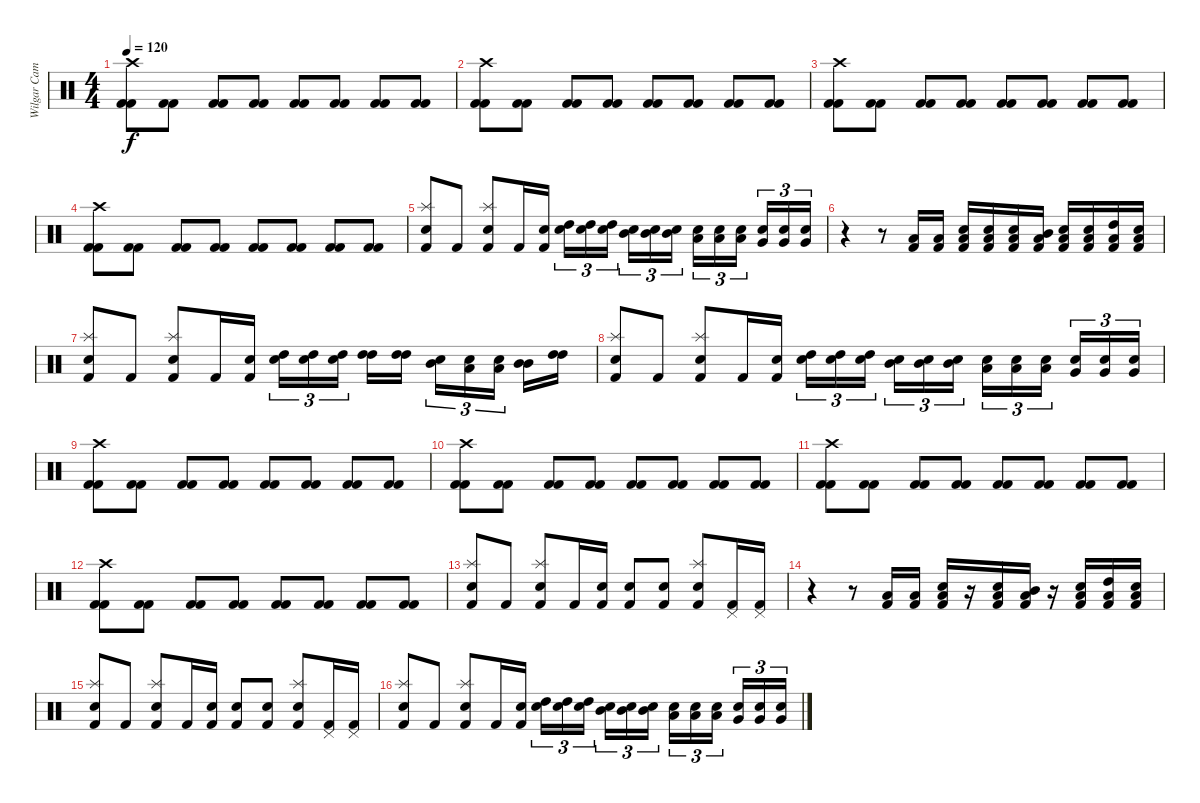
\track ("Wilgar Campbell" "Wilgar Cam") {instrument percussion}
\staff {score}
\articulation defaults
\ts (4 4)
\tempo 120
\clef neutral
\ks c
("Crash high (hit)" "Kick (hit) 2" "Kick (hit) 2").8{dy f} ("Kick (hit) 2" "Kick (hit) 2").8 ("Kick (hit) 2" "Kick (hit) 2").8 ("Kick (hit) 2" "Kick (hit) 2").8 ("Kick (hit) 2" "Kick (hit) 2").8 ("Kick (hit) 2" "Kick (hit) 2").8 ("Kick (hit) 2" "Kick (hit) 2").8 ("Kick (hit) 2" "Kick (hit) 2").8 |
("Crash high (hit)" "Kick (hit) 2" "Kick (hit) 2").8 ("Kick (hit) 2" "Kick (hit) 2").8 ("Kick (hit) 2" "Kick (hit) 2").8 ("Kick (hit) 2" "Kick (hit) 2").8 ("Kick (hit) 2" "Kick (hit) 2").8 ("Kick (hit) 2" "Kick (hit) 2").8 ("Kick (hit) 2" "Kick (hit) 2").8 ("Kick (hit) 2" "Kick (hit) 2").8 |
("Crash high (hit)" "Kick (hit) 2" "Kick (hit) 2").8 ("Kick (hit) 2" "Kick (hit) 2").8 ("Kick (hit) 2" "Kick (hit) 2").8 ("Kick (hit) 2" "Kick (hit) 2").8 ("Kick (hit) 2" "Kick (hit) 2").8 ("Kick (hit) 2" "Kick (hit) 2").8 ("Kick (hit) 2" "Kick (hit) 2").8 ("Kick (hit) 2" "Kick (hit) 2").8 |
("Crash high (hit)" "Kick (hit) 2" "Kick (hit) 2").8 ("Kick (hit) 2" "Kick (hit) 2").8 ("Kick (hit) 2" "Kick (hit) 2").8 ("Kick (hit) 2" "Kick (hit) 2").8 ("Kick (hit) 2" "Kick (hit) 2").8 ("Kick (hit) 2" "Kick (hit) 2").8 ("Kick (hit) 2" "Kick (hit) 2").8 ("Kick (hit) 2" "Kick (hit) 2").8 |
("Splash (hit)" "Snare (hit) 2" "Kick (hit) 2").8 "Kick (hit) 2".8 ("Splash (hit)" "Electric Snare (hit)" "Kick (hit) 2").8 "Kick (hit) 2".16 ("Snare (hit) 2" "Kick (hit) 2").16 ("High Tom (hit)" "Electric Snare (hit)").16{tu (3 2)} ("High Tom (hit)" "Electric Snare (hit)").16{tu (3 2)} ("High Tom (hit)" "Electric Snare (hit)").16{tu (3 2)} ("Mid Tom (hit)" "Electric Snare (hit)").16{tu (3 2)} ("Mid Tom (hit)" "Electric Snare (hit)").16{tu (3 2)} ("Mid Tom (hit)" "Electric Snare (hit)").16{tu (3 2)} ("Low Tom (hit)" "Snare (hit) 2").16{tu (3 2)} ("Low Tom (hit)" "Snare (hit) 2").16{tu (3 2)} ("Low Tom (hit)" "Snare (hit) 2").16{tu (3 2)} ("Very Low Tom (hit)" "Snare (hit) 2").16{tu (3 2)} ("Very Low Tom (hit)" "Snare (hit) 2").16{tu (3 2)} ("Very Low Tom (hit)" "Snare (hit) 2").16{tu (3 2)} |
r.4 r.8 ("Low Tom (hit)" "Kick (hit) 2").16 ("Low Tom (hit)" "Kick (hit) 2").16 ("Snare (hit) 2" "Low Tom (hit)" "Kick (hit) 2").16 ("Electric Snare (hit)" "Low Tom (hit)" "Kick (hit) 2").16 ("Snare (hit) 2" "Low Tom (hit)" "Kick (hit) 2").16 ("Mid Tom (hit)" "Low Tom (hit)" "Kick (hit) 2").16 ("Electric Snare (hit)" "Low Tom (hit)" "Kick (hit) 2").16 ("Snare (hit) 2" "Low Tom (hit)" "Kick (hit) 2").16 ("High Tom (hit)" "Low Tom (hit)" "Kick (hit) 2").16 ("Electric Snare (hit)" "Low Tom (hit)" "Kick (hit) 2").16 |
("Splash (hit)" "Snare (hit) 2" "Kick (hit) 2").8 "Kick (hit) 2".8 ("Splash (hit)" "Electric Snare (hit)" "Kick (hit) 2").8 "Kick (hit) 2".16 ("Snare (hit) 2" "Kick (hit) 2").16 ("High Tom (hit)" "Electric Snare (hit)").16{tu (3 2)} ("High Tom (hit)" "Electric Snare (hit)").16{tu (3 2)} ("High Tom (hit)" "Electric Snare (hit)").16{tu (3 2)} ("High Tom (hit)" "High Tom (hit)").16 ("High Tom (hit)" "High Tom (hit)").16 ("Mid Tom (hit)" "Electric Snare (hit)").16{tu (3 2)} ("Low Tom (hit)" "Snare (hit) 2").16{tu (3 2)} ("Low Tom (hit)" "Snare (hit) 2").16{tu (3 2)} ("Mid Tom (hit)" "Mid Tom (hit)").16 ("High Tom (hit)" "High Tom (hit)").16 |
("Splash (hit)" "Snare (hit) 2" "Kick (hit) 2").8 "Kick (hit) 2".8 ("Splash (hit)" "Electric Snare (hit)" "Kick (hit) 2").8 "Kick (hit) 2".16 ("Snare (hit) 2" "Kick (hit) 2").16 ("High Tom (hit)" "Electric Snare (hit)").16{tu (3 2)} ("High Tom (hit)" "Electric Snare (hit)").16{tu (3 2)} ("High Tom (hit)" "Electric Snare (hit)").16{tu (3 2)} ("Mid Tom (hit)" "Electric Snare (hit)").16{tu (3 2)} ("Mid Tom (hit)" "Electric Snare (hit)").16{tu (3 2)} ("Mid Tom (hit)" "Electric Snare (hit)").16{tu (3 2)} ("Low Tom (hit)" "Snare (hit) 2").16{tu (3 2)} ("Low Tom (hit)" "Snare (hit) 2").16{tu (3 2)} ("Low Tom (hit)" "Snare (hit) 2").16{tu (3 2)} ("Very Low Tom (hit)" "Snare (hit) 2").16{tu (3 2)} ("Very Low Tom (hit)" "Snare (hit) 2").16{tu (3 2)} ("Very Low Tom (hit)" "Snare (hit) 2").16{tu (3 2)} |
("Crash high (hit)" "Kick (hit) 2" "Kick (hit) 2").8 ("Kick (hit) 2" "Kick (hit) 2").8 ("Kick (hit) 2" "Kick (hit) 2").8 ("Kick (hit) 2" "Kick (hit) 2").8 ("Kick (hit) 2" "Kick (hit) 2").8 ("Kick (hit) 2" "Kick (hit) 2").8 ("Kick (hit) 2" "Kick (hit) 2").8 ("Kick (hit) 2" "Kick (hit) 2").8 |
("Crash high (hit)" "Kick (hit) 2" "Kick (hit) 2").8 ("Kick (hit) 2" "Kick (hit) 2").8 ("Kick (hit) 2" "Kick (hit) 2").8 ("Kick (hit) 2" "Kick (hit) 2").8 ("Kick (hit) 2" "Kick (hit) 2").8 ("Kick (hit) 2" "Kick (hit) 2").8 ("Kick (hit) 2" "Kick (hit) 2").8 ("Kick (hit) 2" "Kick (hit) 2").8 |
("Crash high (hit)" "Kick (hit) 2" "Kick (hit) 2").8 ("Kick (hit) 2" "Kick (hit) 2").8 ("Kick (hit) 2" "Kick (hit) 2").8 ("Kick (hit) 2" "Kick (hit) 2").8 ("Kick (hit) 2" "Kick (hit) 2").8 ("Kick (hit) 2" "Kick (hit) 2").8 ("Kick (hit) 2" "Kick (hit) 2").8 ("Kick (hit) 2" "Kick (hit) 2").8 |
("Crash high (hit)" "Kick (hit) 2" "Kick (hit) 2").8 ("Kick (hit) 2" "Kick (hit) 2").8 ("Kick (hit) 2" "Kick (hit) 2").8 ("Kick (hit) 2" "Kick (hit) 2").8 ("Kick (hit) 2" "Kick (hit) 2").8 ("Kick (hit) 2" "Kick (hit) 2").8 ("Kick (hit) 2" "Kick (hit) 2").8 ("Kick (hit) 2" "Kick (hit) 2").8 |
("Splash (hit)" "Snare (hit) 2" "Kick (hit) 2").8 "Kick (hit) 2".8 ("Splash (hit)" "Electric Snare (hit)" "Kick (hit) 2").8 "Kick (hit) 2".16 ("Snare (hit) 2" "Kick (hit) 2").16 ("Snare (hit) 2" "Kick (hit) 2").8 ("Electric Snare (hit)" "Kick (hit) 2").8 ("Splash (hit)" "Electric Snare (hit)" "Kick (hit) 2").8 ("Pedal Hi-Hat (hit)" "Kick (hit) 2").16 ("Pedal Hi-Hat (hit)" "Kick (hit) 2").16 |
r.4 r.8 ("Low Tom (hit)" "Kick (hit) 2").16 ("Low Tom (hit)" "Kick (hit) 2").16 ("Snare (hit) 2" "Low Tom (hit)" "Kick (hit) 2").16 r.16 ("Snare (hit) 2" "Low Tom (hit)" "Kick (hit) 2").16 ("Mid Tom (hit)" "Low Tom (hit)" "Kick (hit) 2").16 r.16 ("Snare (hit) 2" "Low Tom (hit)" "Kick (hit) 2").16 ("High Tom (hit)" "Low Tom (hit)" "Kick (hit) 2").16 ("Electric Snare (hit)" "Low Tom (hit)" "Kick (hit) 2").16 |
("Splash (hit)" "Snare (hit) 2" "Kick (hit) 2").8 "Kick (hit) 2".8 ("Splash (hit)" "Electric Snare (hit)" "Kick (hit) 2").8 "Kick (hit) 2".16 ("Snare (hit) 2" "Kick (hit) 2").16 ("Snare (hit) 2" "Kick (hit) 2").8 ("Electric Snare (hit)" "Kick (hit) 2").8 ("Splash (hit)" "Electric Snare (hit)" "Kick (hit) 2").8 ("Pedal Hi-Hat (hit)" "Kick (hit) 2").16 ("Pedal Hi-Hat (hit)" "Kick (hit) 2").16 |
("Splash (hit)" "Snare (hit) 2" "Kick (hit) 2").8 "Kick (hit) 2".8 ("Splash (hit)" "Electric Snare (hit)" "Kick (hit) 2").8 "Kick (hit) 2".16 ("Snare (hit) 2" "Kick (hit) 2").16 ("High Tom (hit)" "Electric Snare (hit)").16{tu (3 2)} ("High Tom (hit)" "Electric Snare (hit)").16{tu (3 2)} ("High Tom (hit)" "Electric Snare (hit)").16{tu (3 2)} ("Mid Tom (hit)" "Electric Snare (hit)").16{tu (3 2)} ("Mid Tom (hit)" "Electric Snare (hit)").16{tu (3 2)} ("Mid Tom (hit)" "Electric Snare (hit)").16{tu (3 2)} ("Low Tom (hit)" "Snare (hit) 2").16{tu (3 2)} ("Low Tom (hit)" "Snare (hit) 2").16{tu (3 2)} ("Low Tom (hit)" "Snare (hit) 2").16{tu (3 2)} ("Very Low Tom (hit)" "Snare (hit) 2").16{tu (3 2)} ("Very Low Tom (hit)" "Snare (hit) 2").16{tu (3 2)} ("Very Low Tom (hit)" "Snare (hit) 2").16{tu (3 2)}
